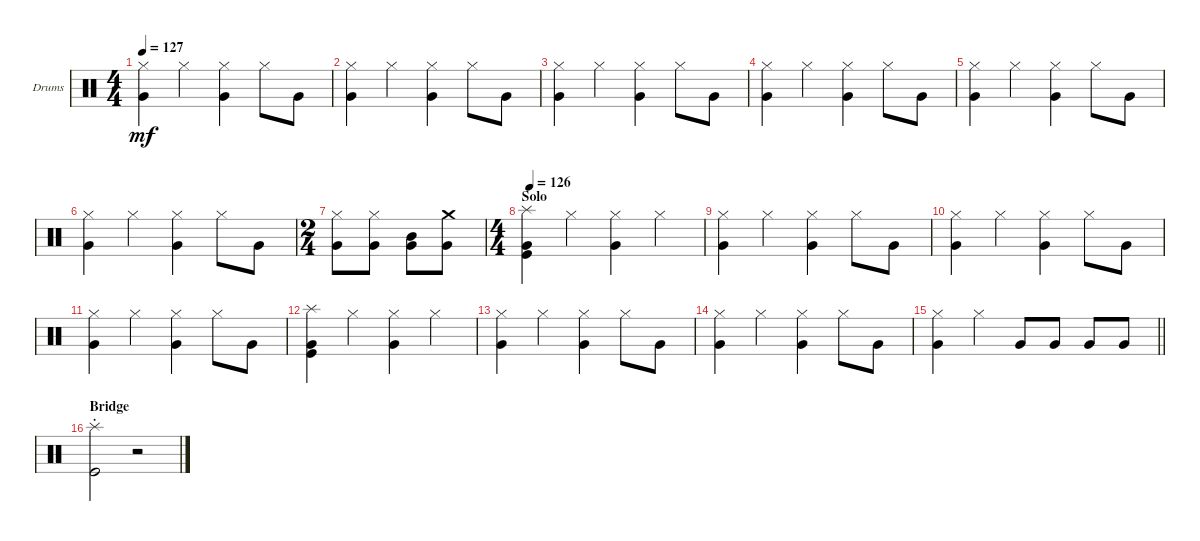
\defaultSystemsLayout 4
\bracketExtendMode groupsimilarinstruments
\firstSystemTrackNameOrientation horizontal
\otherSystemsTrackNameOrientation horizontal
\chordDiagramsInScore
\track ("Drumkit" "Drums") {instrument percussion}
\staff {score}
\articulation defaults
\ts (4 4)
\tempo 127
\clef neutral
\scale
0.333333
\ks c
("Hi-Hat (closed)" "Very Low Tom (hit)").4{dy mf} "Hi-Hat (closed)".4 ("Hi-Hat (closed)" "Very Low Tom (hit)").4 "Hi-Hat (closed)".8 "Very Low Tom (hit)".8 |
\scale
0.333333 ("Hi-Hat (closed)" "Very Low Tom (hit)").4 "Hi-Hat (closed)".4 ("Hi-Hat (closed)" "Very Low Tom (hit)").4 "Hi-Hat (closed)".8 "Very Low Tom (hit)".8 |
\scale
0.333333 ("Hi-Hat (closed)" "Very Low Tom (hit)").4 "Hi-Hat (closed)".4 ("Hi-Hat (closed)" "Very Low Tom (hit)").4 "Hi-Hat (closed)".8 "Very Low Tom (hit)".8 |
\scale
0.333333 ("Hi-Hat (closed)" "Very Low Tom (hit)").4 "Hi-Hat (closed)".4 ("Hi-Hat (closed)" "Very Low Tom (hit)").4 "Hi-Hat (closed)".8 "Very Low Tom (hit)".8 |
\scale
0.262911 ("Hi-Hat (closed)" "Very Low Tom (hit)").4 "Hi-Hat (closed)".4 ("Hi-Hat (closed)" "Very Low Tom (hit)").4 "Hi-Hat (closed)".8 "Very Low Tom (hit)".8 |
\scale
0.262911 ("Hi-Hat (closed)" "Very Low Tom (hit)").4 "Hi-Hat (closed)".4 ("Hi-Hat (closed)" "Very Low Tom (hit)").4 "Hi-Hat (closed)".8 "Very Low Tom (hit)".8 |
\ts (2 4)
\scale
0.474178 ("Hi-Hat (closed)" "Very Low Tom (hit)").8 ("Hi-Hat (closed)" "Very Low Tom (hit)").8 ("Mid Tom (hit)" "Very Low Tom (hit)").8 ("Very Low Tom (hit)" "Crash medium (hit)").8 |
\ts (4 4)
\section ("" "Solo")
\tempo (126 0.0232558)
\scale
0.474178 ("Kick (hit)" "Splash (hit)" "Very Low Tom (hit)").4 "Hi-Hat (closed)".4 ("Hi-Hat (closed)" "Very Low Tom (hit)").4 "Hi-Hat (closed)".4 |
\scale
0.262911 ("Hi-Hat (closed)" "Very Low Tom (hit)").4 "Hi-Hat (closed)".4 ("Hi-Hat (closed)" "Very Low Tom (hit)").4 "Hi-Hat (closed)".8 "Very Low Tom (hit)".8 |
\scale
0.262911 ("Hi-Hat (closed)" "Very Low Tom (hit)").4 "Hi-Hat (closed)".4 ("Hi-Hat (closed)" "Very Low Tom (hit)").4 "Hi-Hat (closed)".8 "Very Low Tom (hit)".8 |
\scale
0.333333 ("Hi-Hat (closed)" "Very Low Tom (hit)").4 "Hi-Hat (closed)".4 ("Hi-Hat (closed)" "Very Low Tom (hit)").4 "Hi-Hat (closed)".8 "Very Low Tom (hit)".8 |
\scale
0.333333 ("Kick (hit)" "Splash (hit)" "Very Low Tom (hit)").4 "Hi-Hat (closed)".4 ("Hi-Hat (closed)" "Very Low Tom (hit)").4 "Hi-Hat (closed)".4 |
\scale
0.333333 ("Hi-Hat (closed)" "Very Low Tom (hit)").4 "Hi-Hat (closed)".4 ("Hi-Hat (closed)" "Very Low Tom (hit)").4 "Hi-Hat (closed)".8 "Very Low Tom (hit)".8 |
\scale
0.333333 ("Hi-Hat (closed)" "Very Low Tom (hit)").4 "Hi-Hat (closed)".4 ("Hi-Hat (closed)" "Very Low Tom (hit)").4 "Hi-Hat (closed)".8 "Very Low Tom (hit)".8 |
\scale
0.333333
\barLineRight lightlight
("Hi-Hat (closed)" "Very Low Tom (hit)").4 "Hi-Hat (closed)".4 "Very Low Tom (hit)".8 "Very Low Tom (hit)".8 "Very Low Tom (hit)".8 "Very Low Tom (hit)".8 |
\section ("" "Bridge")
\scale
0.333333 ("Kick (hit)" "Splash (hit)"{st}).2 r.2
